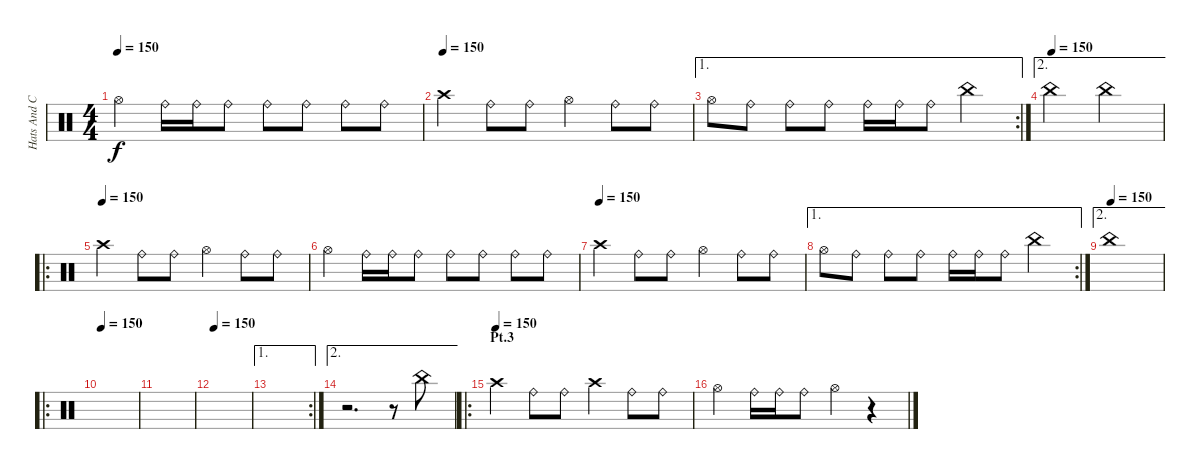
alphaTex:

\track ("Hats And Cymbals" "Hats And C") {instrument percussion}
\staff {score}
\articulation defaults
\ts (4 4)
\tempo 150
\clef neutral
\ks c "Hi-Hat (open)".4{dy f} "Ride (bell)".16 "Ride (bell)".16 "Ride (bell)".8 "Ride (bell)".8 "Ride (bell)".8 "Ride (bell)".8 "Ride (bell)".8
|
\tempo (150)
"Crash high (hit)".4 "Ride (bell)".8 "Ride (bell)".8 "Hi-Hat (open)".4 "Ride (bell)".8 "Ride (bell)".8 |
\ae 1
\rc 2 "Hi-Hat (open)".8 "Ride (bell)".8 "Ride (bell)".8 "Ride (bell)".8 "Ride (bell)".16 "Ride (bell)".16 "Ride (bell)".8 "China (hit)".4
|
\ae 2
\tempo (150)
"China (hit)".2 "China (hit)".2 |
\ro
\tempo (150)
"Crash high (hit)".4 "Ride (bell)".8 "Ride (bell)".8 "Hi-Hat (open)".4 "Ride (bell)".8 "Ride (bell)".8 |
"Hi-Hat (open)".4 "Ride (bell)".16 "Ride (bell)".16 "Ride (bell)".8 "Ride (bell)".8 "Ride (bell)".8 "Ride (bell)".8 "Ride (bell)".8 |
\tempo (150)
"Crash high (hit)".4 "Ride (bell)".8 "Ride (bell)".8 "Hi-Hat (open)".4 "Ride (bell)".8 "Ride (bell)".8 |
\ae 1
\rc 2 "Hi-Hat (open)".8 "Ride (bell)".8 "Ride (bell)".8 "Ride (bell)".8 "Ride (bell)".16 "Ride (bell)".16 "Ride (bell)".8 "China (hit)".4
|
\ae 2
\tempo (150)
"China (hit)".1 |
\ro
\tempo 150
|
|
\tempo 150
|
\ae 1
\rc 2
|
\ae 2
r.2{d} r.8 "China (hit)".8 |
\ro
\section ("" "Pt.3")
\tempo (150)
"Crash high (hit)".4 "Ride (bell)".8 "Ride (bell)".8 "Crash high (hit)".4 "Ride (bell)".8 "Ride (bell)".8 |
"Hi-Hat (open)".4 "Ride (bell)".16 "Ride (bell)".16 "Ride (bell)".8 "Hi-Hat (open)".4 r.4
